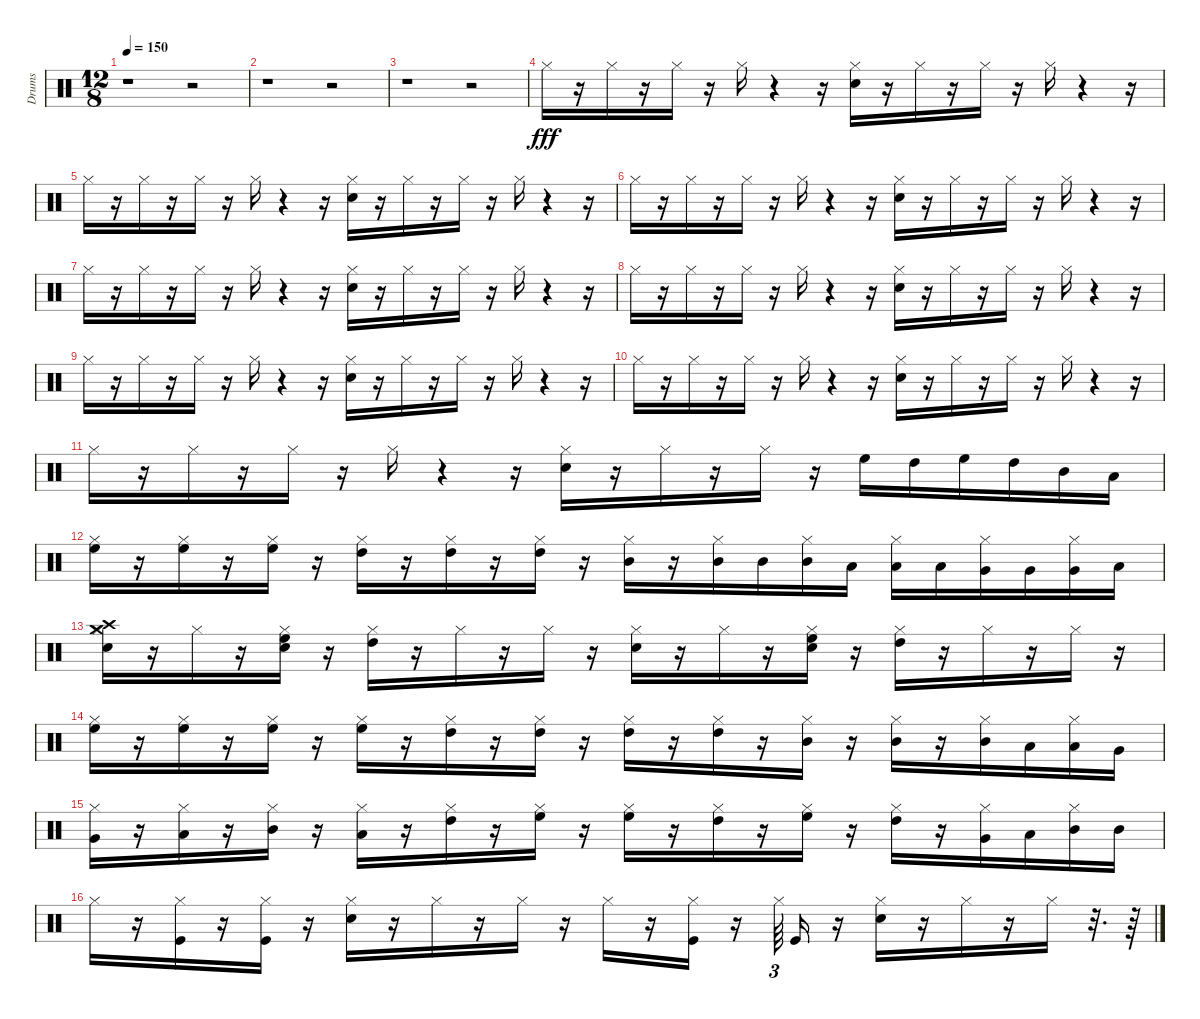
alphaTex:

\track ("Drums" "Drums") {instrument percussion}
\staff {score}
\articulation defaults
\ts (12 8)
\tempo 150
\clef neutral
\ks c
r.1{dy fff} r.2 |
r.1 r.2 |
r.1 r.2 |
"Hi-Hat (closed)".16 r.16 "Hi-Hat (closed)".16 r.16 "Hi-Hat (closed)".16 r.16 "Hi-Hat (closed)".16 r.4 r.16 ("Electric Snare (hit)" "Hi-Hat (closed)").16 r.16 "Hi-Hat (closed)".16 r.16 "Hi-Hat (closed)".16 r.16 "Hi-Hat (closed)".16 r.4 r.16 |
"Hi-Hat (closed)".16 r.16 "Hi-Hat (closed)".16 r.16 "Hi-Hat (closed)".16 r.16 "Hi-Hat (closed)".16 r.4 r.16 ("Electric Snare (hit)" "Hi-Hat (closed)").16 r.16 "Hi-Hat (closed)".16 r.16 "Hi-Hat (closed)".16 r.16 "Hi-Hat (closed)".16 r.4 r.16 |
"Hi-Hat (closed)".16 r.16 "Hi-Hat (closed)".16 r.16 "Hi-Hat (closed)".16 r.16 "Hi-Hat (closed)".16 r.4 r.16 ("Electric Snare (hit)" "Hi-Hat (closed)").16 r.16 "Hi-Hat (closed)".16 r.16 "Hi-Hat (closed)".16 r.16 "Hi-Hat (closed)".16 r.4 r.16 |
"Hi-Hat (closed)".16 r.16 "Hi-Hat (closed)".16 r.16 "Hi-Hat (closed)".16 r.16 "Hi-Hat (closed)".16 r.4 r.16 ("Electric Snare (hit)" "Hi-Hat (closed)").16 r.16 "Hi-Hat (closed)".16 r.16 "Hi-Hat (closed)".16 r.16 "Hi-Hat (closed)".16 r.4 r.16 |
"Hi-Hat (closed)".16 r.16 "Hi-Hat (closed)".16 r.16 "Hi-Hat (closed)".16 r.16 "Hi-Hat (closed)".16 r.4 r.16 ("Electric Snare (hit)" "Hi-Hat (closed)").16 r.16 "Hi-Hat (closed)".16 r.16 "Hi-Hat (closed)".16 r.16 "Hi-Hat (closed)".16 r.4 r.16 |
"Hi-Hat (closed)".16 r.16 "Hi-Hat (closed)".16 r.16 "Hi-Hat (closed)".16 r.16 "Hi-Hat (closed)".16 r.4 r.16 ("Electric Snare (hit)" "Hi-Hat (closed)").16 r.16 "Hi-Hat (closed)".16 r.16 "Hi-Hat (closed)".16 r.16 "Hi-Hat (closed)".16 r.4 r.16 |
"Hi-Hat (closed)".16 r.16 "Hi-Hat (closed)".16 r.16 "Hi-Hat (closed)".16 r.16 "Hi-Hat (closed)".16 r.4 r.16 ("Electric Snare (hit)" "Hi-Hat (closed)").16 r.16 "Hi-Hat (closed)".16 r.16 "Hi-Hat (closed)".16 r.16 "Hi-Hat (closed)".16 r.4 r.16 |
"Hi-Hat (closed)".16 r.16 "Hi-Hat (closed)".16 r.16 "Hi-Hat (closed)".16 r.16 "Hi-Hat (closed)".16 r.4 r.16 ("Electric Snare (hit)" "Hi-Hat (closed)").16 r.16 "Hi-Hat (closed)".16 r.16 "Hi-Hat (closed)".16 r.16 "High Floor Tom (hit)".16 "High Tom (hit)".16 "High Floor Tom (hit)".16 "High Tom (hit)".16 "Mid Tom (hit)".16 "Low Tom (hit)".16 |
("High Floor Tom (hit)" "Hi-Hat (closed)").16 r.16 ("Hi-Hat (closed)" "High Floor Tom (hit)").16 r.16 ("High Floor Tom (hit)" "Hi-Hat (closed)").16 r.16 ("Hi-Hat (closed)" "High Tom (hit)").16 r.16 ("High Tom (hit)" "Hi-Hat (closed)").16 r.16 ("Hi-Hat (closed)" "High Tom (hit)").16 r.16 ("Mid Tom (hit)" "Hi-Hat (closed)").16 r.16 ("Hi-Hat (closed)" "Mid Tom (hit)").16 "Mid Tom (hit)".16 ("Mid Tom (hit)" "Hi-Hat (closed)").16 "Low Tom (hit)".16 ("Hi-Hat (closed)" "Low Tom (hit)").16 "Low Tom (hit)".16 ("Very Low Tom (hit)" "Hi-Hat (closed)").16 "Very Low Tom (hit)".16 ("Very Low Tom (hit)" "Hi-Hat (closed)").16 "Low Floor Tom (hit)".16 |
("Hi-Hat (closed)" "Electric Snare (hit)" "Crash medium (hit)" "Crash high (hit)").16 r.16 "Hi-Hat (closed)".16 r.16 ("High Floor Tom (hit)" "Hi-Hat (closed)" "Electric Snare (hit)").16 r.16 ("Hi-Hat (closed)" "High Tom (hit)").16 r.16 "Hi-Hat (closed)".16 r.16 "Hi-Hat (closed)".16 r.16 ("Electric Snare (hit)" "Hi-Hat (closed)").16 r.16 "Hi-Hat (closed)".16 r.16 ("Electric Snare (hit)" "High Floor Tom (hit)" "Hi-Hat (closed)").16 r.16 ("High Tom (hit)" "Hi-Hat (closed)").16 r.16 "Hi-Hat (closed)".16 r.16 "Hi-Hat (closed)".16 r.16 |
("High Floor Tom (hit)" "Hi-Hat (closed)").16 r.16 ("Hi-Hat (closed)" "High Floor Tom (hit)").16 r.16 ("High Floor Tom (hit)" "Hi-Hat (closed)").16 r.16 ("Hi-Hat (closed)" "High Floor Tom (hit)").16 r.16 ("High Tom (hit)" "Hi-Hat (closed)").16 r.16 ("High Tom (hit)" "Hi-Hat (closed)").16 r.16 ("High Tom (hit)" "Hi-Hat (closed)").16 r.16 ("Hi-Hat (closed)" "High Tom (hit)").16 r.16 ("Mid Tom (hit)" "Hi-Hat (closed)").16 r.16 ("Hi-Hat (closed)" "Mid Tom (hit)").16 r.16 ("Mid Tom (hit)" "Hi-Hat (closed)").16 "Low Tom (hit)".16 ("Low Tom (hit)" "Hi-Hat (closed)").16 "Very Low Tom (hit)".16 |
("Very Low Tom (hit)" "Hi-Hat (closed)").16 r.16 ("Hi-Hat (closed)" "Low Tom (hit)").16 r.16 ("Mid Tom (hit)" "Hi-Hat (closed)").16 r.16 ("Hi-Hat (closed)" "Low Tom (hit)").16 r.16 ("High Tom (hit)" "Hi-Hat (closed)").16 r.16 ("Hi-Hat (closed)" "High Floor Tom (hit)").16 r.16 ("High Floor Tom (hit)" "Hi-Hat (closed)").16 r.16 ("Hi-Hat (closed)" "High Tom (hit)").16 r.16 ("High Floor Tom (hit)" "Hi-Hat (closed)").16 r.16 ("Hi-Hat (closed)" "High Tom (hit)").16 r.16 ("Very Low Tom (hit)" "Hi-Hat (closed)").16 "Low Tom (hit)".16 ("Mid Tom (hit)" "Hi-Hat (closed)").16 "Mid Tom (hit)".16 |
"Hi-Hat (closed)".16 r.16 ("Hi-Hat (closed)" "Kick (hit)").16 r.16 ("Hi-Hat (closed)" "Kick (hit)").16 r.16 ("Hi-Hat (closed)" "Snare (hit) 2").16 r.16 "Hi-Hat (closed)".16 r.16 "Hi-Hat (closed)".16 r.16 "Hi-Hat (closed)".16 r.16 ("Hi-Hat (closed)" "Kick (hit)").16 r.16 "Hi-Hat (closed)".64{tu (3 2)} "Kick (hit)".16 r.16 ("Hi-Hat (closed)" "Snare (hit) 2").16 r.16 "Hi-Hat (closed)".16 r.16 "Hi-Hat (closed)".16 r.32{d} r.64
